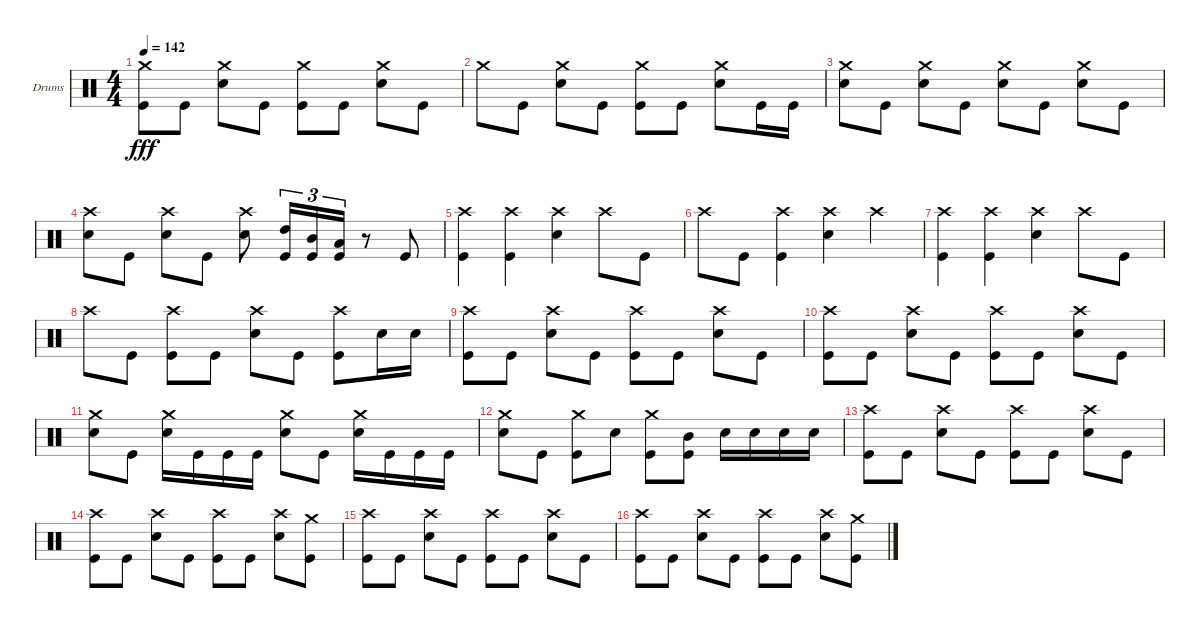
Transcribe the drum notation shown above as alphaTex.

\defaultSystemsLayout 4
\bracketExtendMode groupsimilarinstruments
\firstSystemTrackNameOrientation horizontal
\otherSystemsTrackNameOrientation horizontal
\track ("Drumkit" "Drums") {instrument percussion}
\staff {score}
\articulation defaults
\ts (4 4)
\tempo 142
\clef neutral
\scale
0.333333
\ks c
("Kick (hit)" "Crash medium (hit)").8{dy fff} "Kick (hit)".8 ("Snare (hit) 2" "Crash medium (hit)").8 "Kick (hit)".8 ("Kick (hit)" "Crash medium (hit)").8 "Kick (hit)".8 ("Snare (hit) 2" "Crash medium (hit)").8 "Kick (hit)".8 |
\scale
0.333333 "Crash medium (hit)".8 "Kick (hit)".8 ("Snare (hit) 2" "Crash medium (hit)").8 "Kick (hit)".8 ("Kick (hit)" "Crash medium (hit)").8 "Kick (hit)".8 ("Snare (hit) 2" "Crash medium (hit)").8 "Kick (hit)".16 "Kick (hit)".16 |
\scale
0.333333 ("Snare (hit) 2" "Crash medium (hit)").8 "Kick (hit)".8 ("Snare (hit) 2" "Crash medium (hit)").8 "Kick (hit)".8 ("Snare (hit) 2" "Crash medium (hit)").8 "Kick (hit)".8 ("Snare (hit) 2" "Crash medium (hit)").8 "Kick (hit)".8 |
\scale
0.333333 ("Crash high (hit)" "Snare (hit) 2").8 "Kick (hit)".8 ("Crash high (hit)" "Snare (hit) 2").8 "Kick (hit)".8 ("Crash high (hit)" "Snare (hit) 2").8 ("Kick (hit)" "High Tom (hit)").16{tu (3 2)} ("Kick (hit)" "Mid Tom (hit)").16{tu (3 2)} ("Kick (hit)" "Low Tom (hit)").16{tu (3 2)} r.8 "Kick (hit)".8 |
\scale
0.333333 ("Kick (hit)" "Crash high (hit)").4 ("Kick (hit)" "Crash high (hit)").4 ("Snare (hit) 2" "Crash high (hit)").4 "Crash high (hit)".8 "Kick (hit)".8 |
\scale
0.333333 "Crash high (hit)".8 "Kick (hit)".8 ("Kick (hit)" "Crash high (hit)").4 ("Snare (hit) 2" "Crash high (hit)").4 "Crash high (hit)".4 |
\scale
0.333333 ("Kick (hit)" "Crash high (hit)").4 ("Kick (hit)" "Crash high (hit)").4 ("Snare (hit) 2" "Crash high (hit)").4 "Crash high (hit)".8 "Kick (hit)".8 |
\scale
0.333333 "Crash high (hit)".8 "Kick (hit)".8 ("Kick (hit)" "Crash high (hit)").8 "Kick (hit)".8 ("Crash high (hit)" "Snare (hit) 2").8 "Kick (hit)".8 ("Kick (hit)" "Crash high (hit)").8 "Snare (hit) 2".16 "Snare (hit) 2".16 |
\scale
0.333333 ("Kick (hit)" "Crash high (hit)").8 "Kick (hit)".8 ("Snare (hit) 2" "Crash high (hit)").8 "Kick (hit)".8 ("Kick (hit)" "Crash high (hit)").8 "Kick (hit)".8 ("Snare (hit) 2" "Crash high (hit)").8 "Kick (hit)".8 |
\scale
0.333333 ("Kick (hit)" "Crash high (hit)").8 "Kick (hit)".8 ("Snare (hit) 2" "Crash high (hit)").8 "Kick (hit)".8 ("Kick (hit)" "Crash high (hit)").8 "Kick (hit)".8 ("Snare (hit) 2" "Crash high (hit)").8 "Kick (hit)".8 |
\scale
0.333333 ("Snare (hit) 2" "Crash medium (hit)").8 "Kick (hit)".8 ("Snare (hit) 2" "Crash medium (hit)").16 "Kick (hit)".16 "Kick (hit)".16 "Kick (hit)".16 ("Snare (hit) 2" "Crash medium (hit)").8 "Kick (hit)".8 ("Snare (hit) 2" "Crash medium (hit)").16 "Kick (hit)".16 "Kick (hit)".16 "Kick (hit)".16 |
\scale
0.333333 ("Snare (hit) 2" "Crash medium (hit)").8 "Kick (hit)".8 ("Kick (hit)" "Crash medium (hit)").8 "Snare (hit) 2".8 ("Kick (hit)" "Crash medium (hit)").8 ("Kick (hit)" "Mid Tom (hit)").8 "Snare (hit) 2".16 "Snare (hit) 2".16 "Snare (hit) 2".16 "Snare (hit) 2".16 |
\scale
0.333333 ("Kick (hit)" "Crash high (hit)").8 "Kick (hit)".8 ("Snare (hit) 2" "Crash high (hit)").8 "Kick (hit)".8 ("Kick (hit)" "Crash high (hit)").8 "Kick (hit)".8 ("Snare (hit) 2" "Crash high (hit)").8 "Kick (hit)".8 |
\scale
0.333333 ("Kick (hit)" "Crash high (hit)").8 "Kick (hit)".8 ("Snare (hit) 2" "Crash high (hit)").8 "Kick (hit)".8 ("Kick (hit)" "Crash high (hit)").8 "Kick (hit)".8 ("Snare (hit) 2" "Crash high (hit)").8 ("Kick (hit)" "Crash medium (hit)").8 |
\scale
0.333333 ("Kick (hit)" "Crash high (hit)").8 "Kick (hit)".8 ("Snare (hit) 2" "Crash high (hit)").8 "Kick (hit)".8 ("Kick (hit)" "Crash high (hit)").8 "Kick (hit)".8 ("Snare (hit) 2" "Crash high (hit)").8 "Kick (hit)".8 |
\scale
0.333333 ("Kick (hit)" "Crash high (hit)").8 "Kick (hit)".8 ("Snare (hit) 2" "Crash high (hit)").8 "Kick (hit)".8 ("Kick (hit)" "Crash high (hit)").8 "Kick (hit)".8 ("Snare (hit) 2" "Crash high (hit)").8 ("Kick (hit)" "Crash medium (hit)").8
